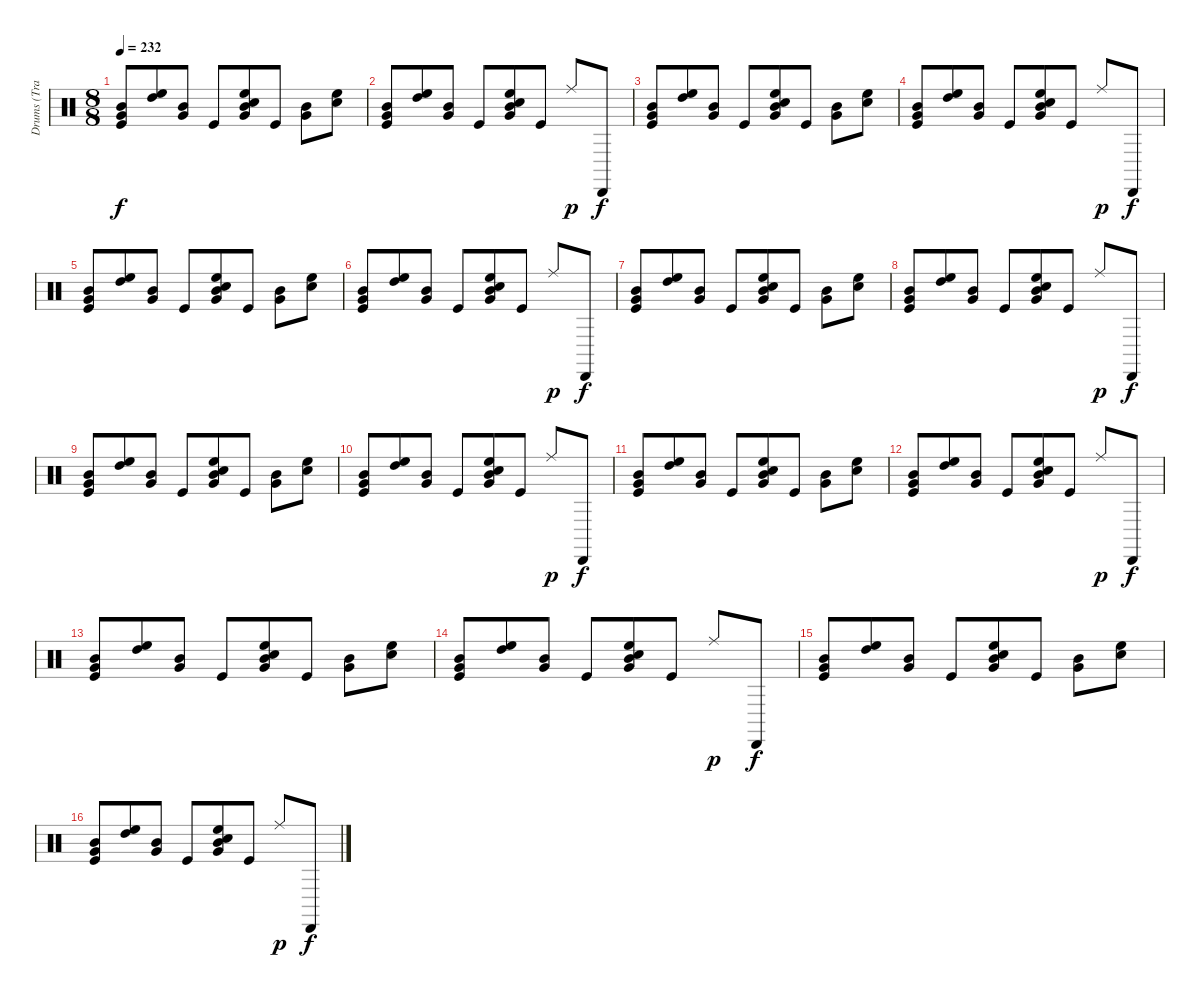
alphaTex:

\track ("Drums (Travis)" "Drums (Tra") {instrument percussion}
\staff {score}
\articulation defaults
\ts (8 8)
\tempo 232
\clef neutral
\ks c
("Mid Tom (hit)" "Very Low Tom (hit)" "Kick (hit)").8{dy f} ("High Tom (hit)" "High Floor Tom (hit)").8 ("Very Low Tom (hit)" "Mid Tom (hit)").8 "Kick (hit)".8 ("Mid Tom (hit)" "Very Low Tom (hit)" "High Floor Tom (hit)" "Electric Snare (hit)").8 "Kick (hit)".8 ("Mid Tom (hit)" "Very Low Tom (hit)").8 ("High Floor Tom (hit)" "Electric Snare (hit)").8 |
("Mid Tom (hit)" "Very Low Tom (hit)" "Kick (hit)").8 ("High Tom (hit)" "High Floor Tom (hit)").8 ("Very Low Tom (hit)" "Mid Tom (hit)").8 "Kick (hit)".8 ("Mid Tom (hit)" "Very Low Tom (hit)" "High Floor Tom (hit)" "Electric Snare (hit)").8 "Kick (hit)".8 "Ride (middle)".8{dy p} "Cabasa (hit)".8{dy f} |
("Mid Tom (hit)" "Very Low Tom (hit)" "Kick (hit)").8 ("High Tom (hit)" "High Floor Tom (hit)").8 ("Very Low Tom (hit)" "Mid Tom (hit)").8 "Kick (hit)".8 ("Mid Tom (hit)" "Very Low Tom (hit)" "High Floor Tom (hit)" "Electric Snare (hit)").8 "Kick (hit)".8 ("Mid Tom (hit)" "Very Low Tom (hit)").8 ("High Floor Tom (hit)" "Electric Snare (hit)").8 |
("Mid Tom (hit)" "Very Low Tom (hit)" "Kick (hit)").8 ("High Tom (hit)" "High Floor Tom (hit)").8 ("Very Low Tom (hit)" "Mid Tom (hit)").8 "Kick (hit)".8 ("Mid Tom (hit)" "Very Low Tom (hit)" "High Floor Tom (hit)" "Electric Snare (hit)").8 "Kick (hit)".8 "Ride (middle)".8{dy p} "Cabasa (hit)".8{dy f} |
("Mid Tom (hit)" "Very Low Tom (hit)" "Kick (hit)").8 ("High Tom (hit)" "High Floor Tom (hit)").8 ("Very Low Tom (hit)" "Mid Tom (hit)").8 "Kick (hit)".8 ("Mid Tom (hit)" "Very Low Tom (hit)" "High Floor Tom (hit)" "Electric Snare (hit)").8 "Kick (hit)".8 ("Mid Tom (hit)" "Very Low Tom (hit)").8 ("High Floor Tom (hit)" "Electric Snare (hit)").8 |
("Mid Tom (hit)" "Very Low Tom (hit)" "Kick (hit)").8 ("High Tom (hit)" "High Floor Tom (hit)").8 ("Very Low Tom (hit)" "Mid Tom (hit)").8 "Kick (hit)".8 ("Mid Tom (hit)" "Very Low Tom (hit)" "High Floor Tom (hit)" "Electric Snare (hit)").8 "Kick (hit)".8 "Ride (middle)".8{dy p} "Cabasa (hit)".8{dy f} |
("Mid Tom (hit)" "Very Low Tom (hit)" "Kick (hit)").8 ("High Tom (hit)" "High Floor Tom (hit)").8 ("Very Low Tom (hit)" "Mid Tom (hit)").8 "Kick (hit)".8 ("Mid Tom (hit)" "Very Low Tom (hit)" "High Floor Tom (hit)" "Electric Snare (hit)").8 "Kick (hit)".8 ("Mid Tom (hit)" "Very Low Tom (hit)").8 ("High Floor Tom (hit)" "Electric Snare (hit)").8 |
("Mid Tom (hit)" "Very Low Tom (hit)" "Kick (hit)").8 ("High Tom (hit)" "High Floor Tom (hit)").8 ("Very Low Tom (hit)" "Mid Tom (hit)").8 "Kick (hit)".8 ("Mid Tom (hit)" "Very Low Tom (hit)" "High Floor Tom (hit)" "Electric Snare (hit)").8 "Kick (hit)".8 "Ride (middle)".8{dy p} "Cabasa (hit)".8{dy f} |
("Mid Tom (hit)" "Very Low Tom (hit)" "Kick (hit)").8 ("High Tom (hit)" "High Floor Tom (hit)").8 ("Very Low Tom (hit)" "Mid Tom (hit)").8 "Kick (hit)".8 ("Mid Tom (hit)" "Very Low Tom (hit)" "High Floor Tom (hit)" "Electric Snare (hit)").8 "Kick (hit)".8 ("Mid Tom (hit)" "Very Low Tom (hit)").8 ("High Floor Tom (hit)" "Electric Snare (hit)").8 |
("Mid Tom (hit)" "Very Low Tom (hit)" "Kick (hit)").8 ("High Tom (hit)" "High Floor Tom (hit)").8 ("Very Low Tom (hit)" "Mid Tom (hit)").8 "Kick (hit)".8 ("Mid Tom (hit)" "Very Low Tom (hit)" "High Floor Tom (hit)" "Electric Snare (hit)").8 "Kick (hit)".8 "Ride (middle)".8{dy p} "Cabasa (hit)".8{dy f} |
("Mid Tom (hit)" "Very Low Tom (hit)" "Kick (hit)").8 ("High Tom (hit)" "High Floor Tom (hit)").8 ("Very Low Tom (hit)" "Mid Tom (hit)").8 "Kick (hit)".8 ("Mid Tom (hit)" "Very Low Tom (hit)" "High Floor Tom (hit)" "Electric Snare (hit)").8 "Kick (hit)".8 ("Mid Tom (hit)" "Very Low Tom (hit)").8 ("High Floor Tom (hit)" "Electric Snare (hit)").8 |
("Mid Tom (hit)" "Very Low Tom (hit)" "Kick (hit)").8 ("High Tom (hit)" "High Floor Tom (hit)").8 ("Very Low Tom (hit)" "Mid Tom (hit)").8 "Kick (hit)".8 ("Mid Tom (hit)" "Very Low Tom (hit)" "High Floor Tom (hit)" "Electric Snare (hit)").8 "Kick (hit)".8 "Ride (middle)".8{dy p} "Cabasa (hit)".8{dy f} |
("Mid Tom (hit)" "Very Low Tom (hit)" "Kick (hit)").8 ("High Tom (hit)" "High Floor Tom (hit)").8 ("Very Low Tom (hit)" "Mid Tom (hit)").8 "Kick (hit)".8 ("Mid Tom (hit)" "Very Low Tom (hit)" "High Floor Tom (hit)" "Electric Snare (hit)").8 "Kick (hit)".8 ("Mid Tom (hit)" "Very Low Tom (hit)").8 ("High Floor Tom (hit)" "Electric Snare (hit)").8 |
("Mid Tom (hit)" "Very Low Tom (hit)" "Kick (hit)").8 ("High Tom (hit)" "High Floor Tom (hit)").8 ("Very Low Tom (hit)" "Mid Tom (hit)").8 "Kick (hit)".8 ("Mid Tom (hit)" "Very Low Tom (hit)" "High Floor Tom (hit)" "Electric Snare (hit)").8 "Kick (hit)".8 "Ride (middle)".8{dy p} "Cabasa (hit)".8{dy f} |
("Mid Tom (hit)" "Very Low Tom (hit)" "Kick (hit)").8 ("High Tom (hit)" "High Floor Tom (hit)").8 ("Very Low Tom (hit)" "Mid Tom (hit)").8 "Kick (hit)".8 ("Mid Tom (hit)" "Very Low Tom (hit)" "High Floor Tom (hit)" "Electric Snare (hit)").8 "Kick (hit)".8 ("Mid Tom (hit)" "Very Low Tom (hit)").8 ("High Floor Tom (hit)" "Electric Snare (hit)").8 |
("Mid Tom (hit)" "Very Low Tom (hit)" "Kick (hit)").8 ("High Tom (hit)" "High Floor Tom (hit)").8 ("Very Low Tom (hit)" "Mid Tom (hit)").8 "Kick (hit)".8 ("Mid Tom (hit)" "Very Low Tom (hit)" "High Floor Tom (hit)" "Electric Snare (hit)").8 "Kick (hit)".8 "Ride (middle)".8{dy p} "Cabasa (hit)".8{dy f}
